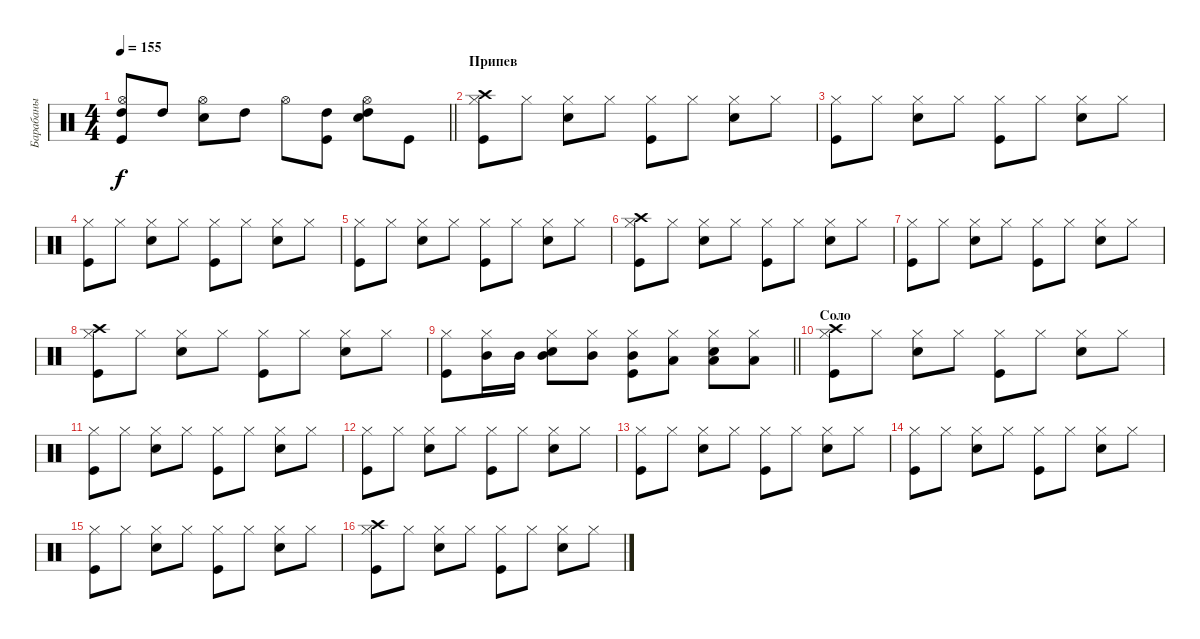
\track ("Барабаны" "Барабаны") {instrument percussion}
\staff {score}
\articulation defaults
\ts (4 4)
\tempo 155
\clef neutral
\barLineRight lightlight
\ks c
("Kick (hit)" "Hi-Hat (open)" "High Tom (hit)").8{dy f} "High Tom (hit)".8 ("Snare (hit) 2" "Hi-Hat (open)").8 "High Tom (hit)".8 "Hi-Hat (open)".8 ("Kick (hit)" "High Tom (hit)").8 ("Snare (hit) 2" "Hi-Hat (open)" "High Tom (hit)").8 "Kick (hit)".8 |
\section ("" "Припев")
("Kick (hit)" "Hi-Hat (closed)" "Crash high (hit)").8 "Hi-Hat (closed)".8 ("Snare (hit) 2" "Hi-Hat (closed)").8 "Hi-Hat (closed)".8 ("Kick (hit)" "Hi-Hat (closed)").8 "Hi-Hat (closed)".8 ("Snare (hit) 2" "Hi-Hat (closed)").8 "Hi-Hat (closed)".8 |
("Kick (hit)" "Hi-Hat (closed)").8 "Hi-Hat (closed)".8 ("Snare (hit) 2" "Hi-Hat (closed)").8 "Hi-Hat (closed)".8 ("Kick (hit)" "Hi-Hat (closed)").8 "Hi-Hat (closed)".8 ("Snare (hit) 2" "Hi-Hat (closed)").8 "Hi-Hat (closed)".8 |
("Kick (hit)" "Hi-Hat (closed)").8 "Hi-Hat (closed)".8 ("Snare (hit) 2" "Hi-Hat (closed)").8 "Hi-Hat (closed)".8 ("Kick (hit)" "Hi-Hat (closed)").8 "Hi-Hat (closed)".8 ("Snare (hit) 2" "Hi-Hat (closed)").8 "Hi-Hat (closed)".8 |
("Kick (hit)" "Hi-Hat (closed)").8 "Hi-Hat (closed)".8 ("Snare (hit) 2" "Hi-Hat (closed)").8 "Hi-Hat (closed)".8 ("Kick (hit)" "Hi-Hat (closed)").8 "Hi-Hat (closed)".8 ("Snare (hit) 2" "Hi-Hat (closed)").8 "Hi-Hat (closed)".8 |
("Kick (hit)" "Hi-Hat (closed)" "Crash high (hit)").8 "Hi-Hat (closed)".8 ("Snare (hit) 2" "Hi-Hat (closed)").8 "Hi-Hat (closed)".8 ("Kick (hit)" "Hi-Hat (closed)").8 "Hi-Hat (closed)".8 ("Snare (hit) 2" "Hi-Hat (closed)").8 "Hi-Hat (closed)".8 |
("Kick (hit)" "Hi-Hat (closed)").8 "Hi-Hat (closed)".8 ("Snare (hit) 2" "Hi-Hat (closed)").8 "Hi-Hat (closed)".8 ("Kick (hit)" "Hi-Hat (closed)").8 "Hi-Hat (closed)".8 ("Snare (hit) 2" "Hi-Hat (closed)").8 "Hi-Hat (closed)".8 |
("Kick (hit)" "Hi-Hat (closed)" "Crash high (hit)").8 "Hi-Hat (closed)".8 ("Snare (hit) 2" "Hi-Hat (closed)").8 "Hi-Hat (closed)".8 ("Kick (hit)" "Hi-Hat (closed)").8 "Hi-Hat (closed)".8 ("Snare (hit) 2" "Hi-Hat (closed)").8 "Hi-Hat (closed)".8 |
\barLineRight lightlight
("Kick (hit)" "Hi-Hat (closed)").8 ("Hi-Hat (closed)" "Mid Tom (hit)").16 "Mid Tom (hit)".16 ("Snare (hit) 2" "Hi-Hat (closed)" "Mid Tom (hit)").8 ("Hi-Hat (closed)" "Mid Tom (hit)").8 ("Kick (hit)" "Hi-Hat (closed)" "Mid Tom (hit)").8 ("Hi-Hat (closed)" "Low Tom (hit)").8 ("Snare (hit) 2" "Hi-Hat (closed)" "Low Tom (hit)").8 ("Hi-Hat (closed)" "Low Tom (hit)").8 |
\section ("" "Соло")
("Kick (hit)" "Hi-Hat (closed)" "Crash high (hit)").8 "Hi-Hat (closed)".8 ("Snare (hit) 2" "Hi-Hat (closed)").8 "Hi-Hat (closed)".8 ("Kick (hit)" "Hi-Hat (closed)").8 "Hi-Hat (closed)".8 ("Snare (hit) 2" "Hi-Hat (closed)").8 "Hi-Hat (closed)".8 |
("Kick (hit)" "Hi-Hat (closed)").8 "Hi-Hat (closed)".8 ("Snare (hit) 2" "Hi-Hat (closed)").8 "Hi-Hat (closed)".8 ("Kick (hit)" "Hi-Hat (closed)").8 "Hi-Hat (closed)".8 ("Snare (hit) 2" "Hi-Hat (closed)").8 "Hi-Hat (closed)".8 |
("Kick (hit)" "Hi-Hat (closed)").8 "Hi-Hat (closed)".8 ("Snare (hit) 2" "Hi-Hat (closed)").8 "Hi-Hat (closed)".8 ("Kick (hit)" "Hi-Hat (closed)").8 "Hi-Hat (closed)".8 ("Snare (hit) 2" "Hi-Hat (closed)").8 "Hi-Hat (closed)".8 |
("Kick (hit)" "Hi-Hat (closed)").8 "Hi-Hat (closed)".8 ("Snare (hit) 2" "Hi-Hat (closed)").8 "Hi-Hat (closed)".8 ("Kick (hit)" "Hi-Hat (closed)").8 "Hi-Hat (closed)".8 ("Snare (hit) 2" "Hi-Hat (closed)").8 "Hi-Hat (closed)".8 |
("Kick (hit)" "Hi-Hat (closed)").8 "Hi-Hat (closed)".8 ("Snare (hit) 2" "Hi-Hat (closed)").8 "Hi-Hat (closed)".8 ("Kick (hit)" "Hi-Hat (closed)").8 "Hi-Hat (closed)".8 ("Snare (hit) 2" "Hi-Hat (closed)").8 "Hi-Hat (closed)".8 |
("Kick (hit)" "Hi-Hat (closed)").8 "Hi-Hat (closed)".8 ("Snare (hit) 2" "Hi-Hat (closed)").8 "Hi-Hat (closed)".8 ("Kick (hit)" "Hi-Hat (closed)").8 "Hi-Hat (closed)".8 ("Snare (hit) 2" "Hi-Hat (closed)").8 "Hi-Hat (closed)".8 |
("Kick (hit)" "Hi-Hat (closed)" "Crash high (hit)").8 "Hi-Hat (closed)".8 ("Snare (hit) 2" "Hi-Hat (closed)").8 "Hi-Hat (closed)".8 ("Kick (hit)" "Hi-Hat (closed)").8 "Hi-Hat (closed)".8 ("Snare (hit) 2" "Hi-Hat (closed)").8 "Hi-Hat (closed)".8
